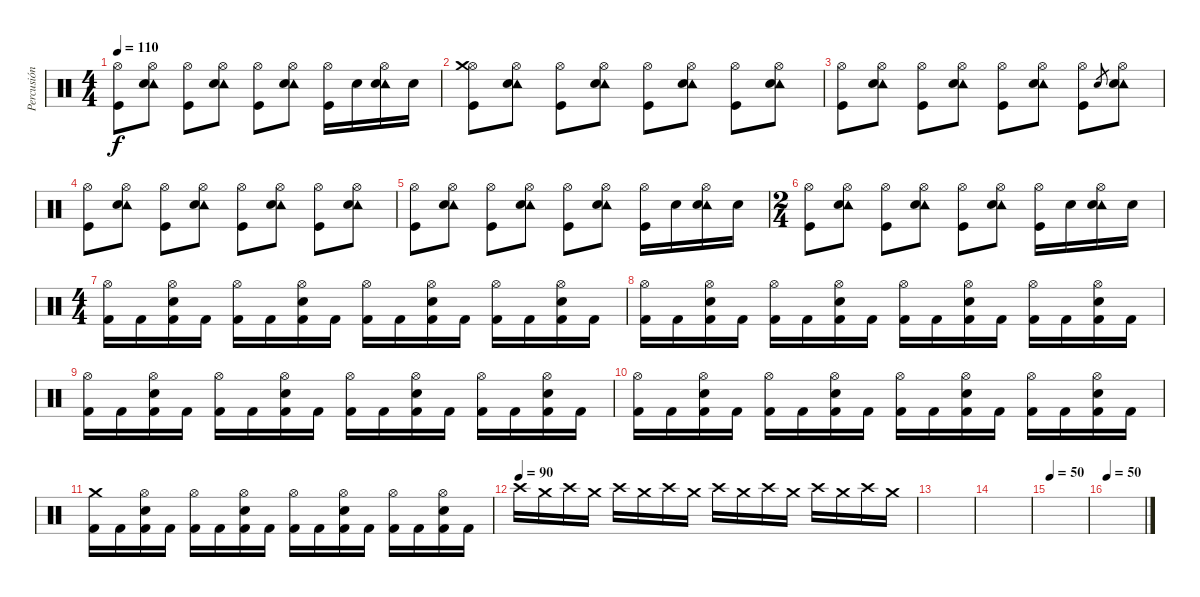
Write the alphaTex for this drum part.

\track ("Percusión" "Percusión") {instrument percussion}
\staff {score}
\articulation defaults
\ts (4 4)
\tempo 110
\clef neutral
\ks c
("Hi-Hat (open)" "Kick (hit)").8{dy f} ("Hi-Hat (open)" "Tambourine (hit)" "Electric Snare (hit)").8 ("Hi-Hat (open)" "Kick (hit)").8 ("Hi-Hat (open)" "Tambourine (hit)" "Electric Snare (hit)").8 ("Hi-Hat (open)" "Kick (hit)").8 ("Hi-Hat (open)" "Tambourine (hit)" "Electric Snare (hit)").8 ("Hi-Hat (open)" "Kick (hit)").16 "Electric Snare (hit)".16 ("Hi-Hat (open)" "Tambourine (hit)" "Electric Snare (hit)").16 "Electric Snare (hit)".16 |
("Hi-Hat (open)" "Crash medium (hit)" "Kick (hit)").8 ("Hi-Hat (open)" "Tambourine (hit)" "Electric Snare (hit)").8 ("Hi-Hat (open)" "Kick (hit)").8 ("Hi-Hat (open)" "Tambourine (hit)" "Electric Snare (hit)").8 ("Hi-Hat (open)" "Kick (hit)").8 ("Hi-Hat (open)" "Tambourine (hit)" "Electric Snare (hit)").8 ("Hi-Hat (open)" "Kick (hit)").8 ("Hi-Hat (open)" "Tambourine (hit)" "Electric Snare (hit)").8 |
("Hi-Hat (open)" "Kick (hit)").8 ("Hi-Hat (open)" "Tambourine (hit)" "Electric Snare (hit)").8 ("Hi-Hat (open)" "Kick (hit)").8 ("Hi-Hat (open)" "Tambourine (hit)" "Electric Snare (hit)").8 ("Hi-Hat (open)" "Kick (hit)").8 ("Hi-Hat (open)" "Tambourine (hit)" "Electric Snare (hit)").8 ("Hi-Hat (open)" "Kick (hit)").8 "Electric Snare (hit)".8{gr} ("Hi-Hat (open)" "Tambourine (hit)" "Electric Snare (hit)").8 |
("Hi-Hat (open)" "Kick (hit)").8 ("Hi-Hat (open)" "Tambourine (hit)" "Electric Snare (hit)").8 ("Hi-Hat (open)" "Kick (hit)").8 ("Hi-Hat (open)" "Tambourine (hit)" "Electric Snare (hit)").8 ("Hi-Hat (open)" "Kick (hit)").8 ("Hi-Hat (open)" "Tambourine (hit)" "Electric Snare (hit)").8 ("Hi-Hat (open)" "Kick (hit)").8 ("Hi-Hat (open)" "Tambourine (hit)" "Electric Snare (hit)").8 |
("Hi-Hat (open)" "Kick (hit)").8 ("Hi-Hat (open)" "Tambourine (hit)" "Electric Snare (hit)").8 ("Hi-Hat (open)" "Kick (hit)").8 ("Hi-Hat (open)" "Tambourine (hit)" "Electric Snare (hit)").8 ("Hi-Hat (open)" "Kick (hit)").8 ("Hi-Hat (open)" "Tambourine (hit)" "Electric Snare (hit)").8 ("Hi-Hat (open)" "Kick (hit)").16 "Electric Snare (hit)".16 ("Hi-Hat (open)" "Tambourine (hit)" "Electric Snare (hit)").16 "Electric Snare (hit)".16 |
\ts (2 4)
("Hi-Hat (open)" "Kick (hit)").8 ("Hi-Hat (open)" "Tambourine (hit)" "Electric Snare (hit)").8 ("Hi-Hat (open)" "Kick (hit)").8 ("Hi-Hat (open)" "Tambourine (hit)" "Electric Snare (hit)").8 ("Hi-Hat (open)" "Kick (hit)").8 ("Hi-Hat (open)" "Tambourine (hit)" "Electric Snare (hit)").8 ("Hi-Hat (open)" "Kick (hit)").16 "Electric Snare (hit)".16 ("Hi-Hat (open)" "Tambourine (hit)" "Electric Snare (hit)").16 "Electric Snare (hit)".16 |
\ts (4 4)
("Hi-Hat (open)" "Kick (hit) 2").16 "Kick (hit) 2".16 ("Hi-Hat (open)" "Electric Snare (hit)" "Kick (hit) 2").16 "Kick (hit) 2".16 ("Hi-Hat (open)" "Kick (hit) 2").16 "Kick (hit) 2".16 ("Hi-Hat (open)" "Electric Snare (hit)" "Kick (hit) 2").16 "Kick (hit) 2".16 ("Hi-Hat (open)" "Kick (hit) 2").16 "Kick (hit) 2".16 ("Hi-Hat (open)" "Electric Snare (hit)" "Kick (hit) 2").16 "Kick (hit) 2".16 ("Hi-Hat (open)" "Kick (hit) 2").16 "Kick (hit) 2".16 ("Hi-Hat (open)" "Electric Snare (hit)" "Kick (hit) 2").16 "Kick (hit) 2".16 |
("Hi-Hat (open)" "Kick (hit) 2").16 "Kick (hit) 2".16 ("Hi-Hat (open)" "Electric Snare (hit)" "Kick (hit) 2").16 "Kick (hit) 2".16 ("Hi-Hat (open)" "Kick (hit) 2").16 "Kick (hit) 2".16 ("Hi-Hat (open)" "Electric Snare (hit)" "Kick (hit) 2").16 "Kick (hit) 2".16 ("Hi-Hat (open)" "Kick (hit) 2").16 "Kick (hit) 2".16 ("Hi-Hat (open)" "Electric Snare (hit)" "Kick (hit) 2").16 "Kick (hit) 2".16 ("Hi-Hat (open)" "Kick (hit) 2").16 "Kick (hit) 2".16 ("Hi-Hat (open)" "Electric Snare (hit)" "Kick (hit) 2").16 "Kick (hit) 2".16 |
("Hi-Hat (open)" "Kick (hit) 2").16 "Kick (hit) 2".16 ("Hi-Hat (open)" "Electric Snare (hit)" "Kick (hit) 2").16 "Kick (hit) 2".16 ("Hi-Hat (open)" "Kick (hit) 2").16 "Kick (hit) 2".16 ("Hi-Hat (open)" "Electric Snare (hit)" "Kick (hit) 2").16 "Kick (hit) 2".16 ("Hi-Hat (open)" "Kick (hit) 2").16 "Kick (hit) 2".16 ("Hi-Hat (open)" "Electric Snare (hit)" "Kick (hit) 2").16 "Kick (hit) 2".16 ("Hi-Hat (open)" "Kick (hit) 2").16 "Kick (hit) 2".16 ("Hi-Hat (open)" "Electric Snare (hit)" "Kick (hit) 2").16 "Kick (hit) 2".16 |
("Hi-Hat (open)" "Kick (hit) 2").16 "Kick (hit) 2".16 ("Hi-Hat (open)" "Electric Snare (hit)" "Kick (hit) 2").16 "Kick (hit) 2".16 ("Hi-Hat (open)" "Kick (hit) 2").16 "Kick (hit) 2".16 ("Hi-Hat (open)" "Electric Snare (hit)" "Kick (hit) 2").16 "Kick (hit) 2".16 ("Hi-Hat (open)" "Kick (hit) 2").16 "Kick (hit) 2".16 ("Hi-Hat (open)" "Electric Snare (hit)" "Kick (hit) 2").16 "Kick (hit) 2".16 ("Hi-Hat (open)" "Kick (hit) 2").16 "Kick (hit) 2".16 ("Hi-Hat (open)" "Electric Snare (hit)" "Kick (hit) 2").16 "Kick (hit) 2".16 |
("Crash medium (hit)" "Kick (hit) 2").16 "Kick (hit) 2".16 ("Hi-Hat (open)" "Electric Snare (hit)" "Kick (hit) 2").16 "Kick (hit) 2".16 ("Hi-Hat (open)" "Kick (hit) 2").16 "Kick (hit) 2".16 ("Hi-Hat (open)" "Electric Snare (hit)" "Kick (hit) 2").16 "Kick (hit) 2".16 ("Hi-Hat (open)" "Kick (hit) 2").16 "Kick (hit) 2".16 ("Hi-Hat (open)" "Electric Snare (hit)" "Kick (hit) 2").16 "Kick (hit) 2".16 ("Hi-Hat (open)" "Kick (hit) 2").16 "Kick (hit) 2".16 ("Hi-Hat (open)" "Electric Snare (hit)" "Kick (hit) 2").16 "Kick (hit) 2".16 |
\tempo (90)
"Crash high (hit)".16 "Crash medium (hit)".16 "Crash high (hit)".16 "Crash medium (hit)".16 "Crash high (hit)".16 "Crash medium (hit)".16 "Crash high (hit)".16 "Crash medium (hit)".16 "Crash high (hit)".16 "Crash medium (hit)".16 "Crash high (hit)".16 "Crash medium (hit)".16 "Crash high (hit)".16 "Crash medium (hit)".16 "Crash high (hit)".16 "Crash medium (hit)".16 |
|
|
\tempo 50
|
\tempo 50
